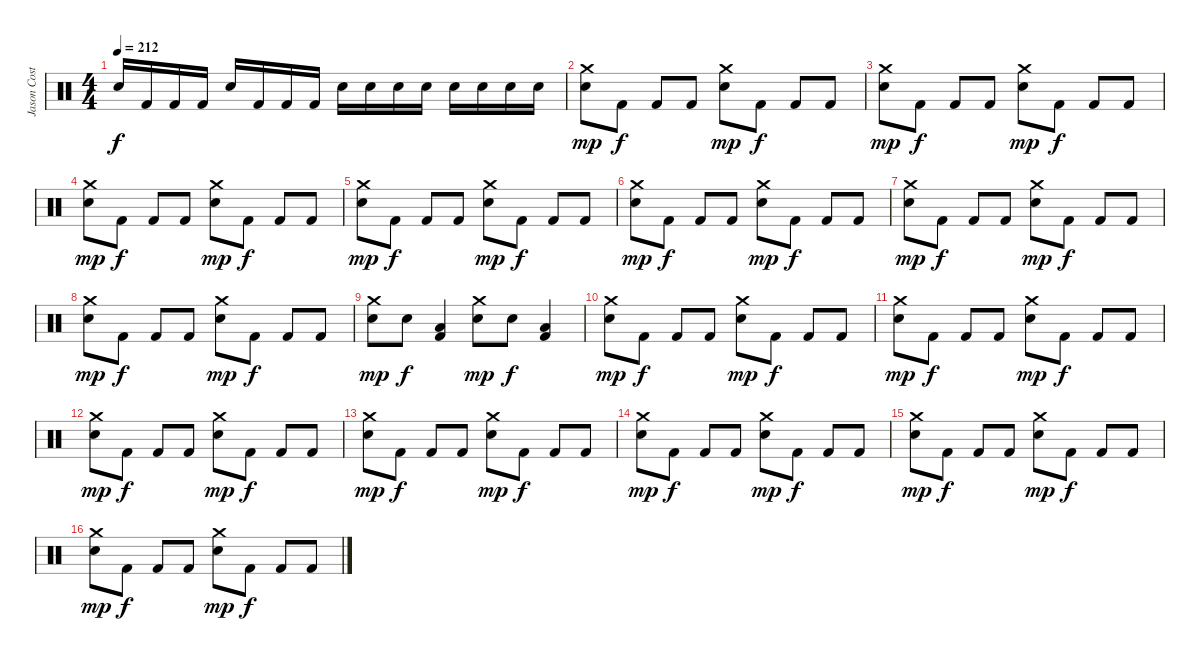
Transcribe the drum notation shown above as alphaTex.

\track ("Jason Costa" "Jason Cost") {instrument percussion}
\staff {score}
\articulation defaults
\ts (4 4)
\tempo 212
\clef neutral
\ks c "Electric Snare (hit)".16{dy f} "Kick (hit) 2".16 "Kick (hit) 2".16 "Kick (hit) 2".16 "Electric Snare (hit)".16 "Kick (hit) 2".16 "Kick (hit) 2".16 "Kick (hit) 2".16 "Electric Snare (hit)".16 "Electric Snare (hit)".16 "Electric Snare (hit)".16 "Electric Snare (hit)".16 "Electric Snare (hit)".16 "Electric Snare (hit)".16 "Electric Snare (hit)".16 "Electric Snare (hit)".16
|
("Crash medium (hit)" "Electric Snare (hit)").8{dy mp} "Kick (hit) 2".8{dy f} "Kick (hit) 2".8 "Kick (hit) 2".8 ("Crash medium (hit)" "Electric Snare (hit)").8{dy mp} "Kick (hit) 2".8{dy f} "Kick (hit) 2".8 "Kick (hit) 2".8 |
("Crash medium (hit)" "Electric Snare (hit)").8{dy mp} "Kick (hit) 2".8{dy f} "Kick (hit) 2".8 "Kick (hit) 2".8 ("Crash medium (hit)" "Electric Snare (hit)").8{dy mp} "Kick (hit) 2".8{dy f} "Kick (hit) 2".8 "Kick (hit) 2".8 |
("Crash medium (hit)" "Electric Snare (hit)").8{dy mp} "Kick (hit) 2".8{dy f} "Kick (hit) 2".8 "Kick (hit) 2".8 ("Crash medium (hit)" "Electric Snare (hit)").8{dy mp} "Kick (hit) 2".8{dy f} "Kick (hit) 2".8 "Kick (hit) 2".8 |
("Crash medium (hit)" "Electric Snare (hit)").8{dy mp} "Kick (hit) 2".8{dy f} "Kick (hit) 2".8 "Kick (hit) 2".8 ("Crash medium (hit)" "Electric Snare (hit)").8{dy mp} "Kick (hit) 2".8{dy f} "Kick (hit) 2".8 "Kick (hit) 2".8 |
("Crash medium (hit)" "Electric Snare (hit)").8{dy mp} "Kick (hit) 2".8{dy f} "Kick (hit) 2".8 "Kick (hit) 2".8 ("Crash medium (hit)" "Electric Snare (hit)").8{dy mp} "Kick (hit) 2".8{dy f} "Kick (hit) 2".8 "Kick (hit) 2".8 |
("Crash medium (hit)" "Electric Snare (hit)").8{dy mp} "Kick (hit) 2".8{dy f} "Kick (hit) 2".8 "Kick (hit) 2".8 ("Crash medium (hit)" "Electric Snare (hit)").8{dy mp} "Kick (hit) 2".8{dy f} "Kick (hit) 2".8 "Kick (hit) 2".8 |
("Crash medium (hit)" "Electric Snare (hit)").8{dy mp} "Kick (hit) 2".8{dy f} "Kick (hit) 2".8 "Kick (hit) 2".8 ("Crash medium (hit)" "Electric Snare (hit)").8{dy mp} "Kick (hit) 2".8{dy f} "Kick (hit) 2".8 "Kick (hit) 2".8 |
("Crash medium (hit)" "Electric Snare (hit)").8{dy mp} "Electric Snare (hit)".8{dy f} ("Low Tom (hit)" "Kick (hit) 2").4 ("Crash medium (hit)" "Electric Snare (hit)").8{dy mp} "Electric Snare (hit)".8{dy f} ("Low Tom (hit)" "Kick (hit) 2").4 |
("Crash medium (hit)" "Electric Snare (hit)").8{dy mp} "Kick (hit) 2".8{dy f} "Kick (hit) 2".8 "Kick (hit) 2".8 ("Crash medium (hit)" "Electric Snare (hit)").8{dy mp} "Kick (hit) 2".8{dy f} "Kick (hit) 2".8 "Kick (hit) 2".8 |
("Crash medium (hit)" "Electric Snare (hit)").8{dy mp} "Kick (hit) 2".8{dy f} "Kick (hit) 2".8 "Kick (hit) 2".8 ("Crash medium (hit)" "Electric Snare (hit)").8{dy mp} "Kick (hit) 2".8{dy f} "Kick (hit) 2".8 "Kick (hit) 2".8 |
("Crash medium (hit)" "Electric Snare (hit)").8{dy mp} "Kick (hit) 2".8{dy f} "Kick (hit) 2".8 "Kick (hit) 2".8 ("Crash medium (hit)" "Electric Snare (hit)").8{dy mp} "Kick (hit) 2".8{dy f} "Kick (hit) 2".8 "Kick (hit) 2".8 |
("Crash medium (hit)" "Electric Snare (hit)").8{dy mp} "Kick (hit) 2".8{dy f} "Kick (hit) 2".8 "Kick (hit) 2".8 ("Crash medium (hit)" "Electric Snare (hit)").8{dy mp} "Kick (hit) 2".8{dy f} "Kick (hit) 2".8 "Kick (hit) 2".8 |
("Crash medium (hit)" "Electric Snare (hit)").8{dy mp} "Kick (hit) 2".8{dy f} "Kick (hit) 2".8 "Kick (hit) 2".8 ("Crash medium (hit)" "Electric Snare (hit)").8{dy mp} "Kick (hit) 2".8{dy f} "Kick (hit) 2".8 "Kick (hit) 2".8 |
("Crash medium (hit)" "Electric Snare (hit)").8{dy mp} "Kick (hit) 2".8{dy f} "Kick (hit) 2".8 "Kick (hit) 2".8 ("Crash medium (hit)" "Electric Snare (hit)").8{dy mp} "Kick (hit) 2".8{dy f} "Kick (hit) 2".8 "Kick (hit) 2".8 |
("Crash medium (hit)" "Electric Snare (hit)").8{dy mp} "Kick (hit) 2".8{dy f} "Kick (hit) 2".8 "Kick (hit) 2".8 ("Crash medium (hit)" "Electric Snare (hit)").8{dy mp} "Kick (hit) 2".8{dy f} "Kick (hit) 2".8 "Kick (hit) 2".8
